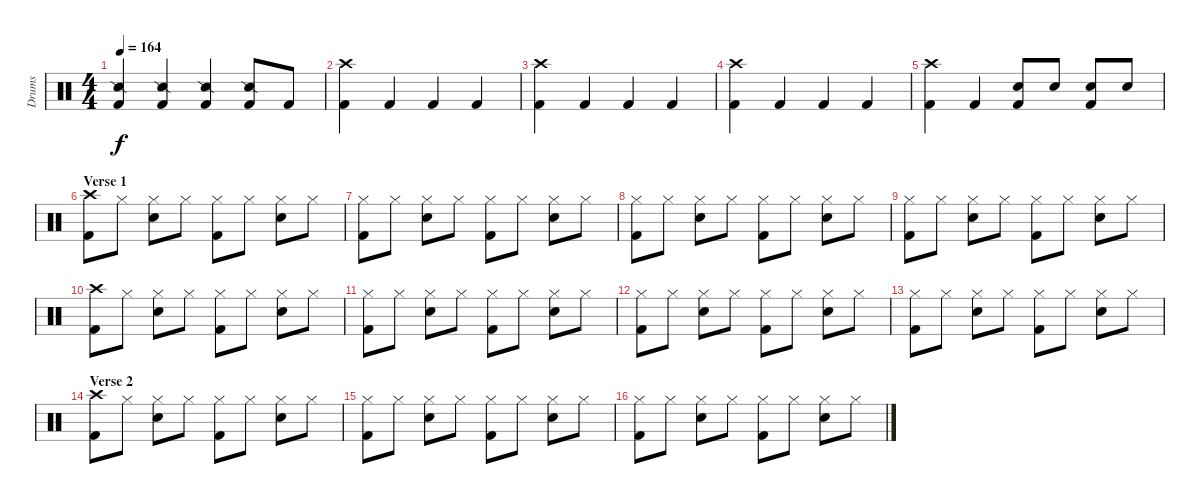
\track ("Drums" "Drums") {instrument percussion}
\staff {score}
\articulation defaults
\ts (4 4)
\tempo 164
\clef neutral
\ks c
("Snare (side stick) 2" "Kick (hit) 2").4{dy f} ("Snare (side stick) 2" "Kick (hit) 2").4 ("Snare (side stick) 2" "Kick (hit) 2").4 ("Snare (side stick) 2" "Kick (hit) 2").8 "Kick (hit) 2".8 |
("Crash high (hit)" "Kick (hit) 2").4 "Kick (hit) 2".4 "Kick (hit) 2".4 "Kick (hit) 2".4 |
("Crash high (hit)" "Kick (hit) 2").4 "Kick (hit) 2".4 "Kick (hit) 2".4 "Kick (hit) 2".4 |
("Crash high (hit)" "Kick (hit) 2").4 "Kick (hit) 2".4 "Kick (hit) 2".4 "Kick (hit) 2".4 |
("Crash high (hit)" "Kick (hit) 2").4 "Kick (hit) 2".4 ("Snare (hit) 2" "Kick (hit) 2").8 "Snare (hit) 2".8 ("Snare (hit) 2" "Kick (hit) 2").8 "Snare (hit) 2".8 |
\section ("" "Verse 1")
("Crash high (hit)" "Kick (hit) 2").8 "Hi-Hat (closed)".8 ("Hi-Hat (closed)" "Snare (hit) 2").8 "Hi-Hat (closed)".8 ("Hi-Hat (closed)" "Kick (hit) 2").8 "Hi-Hat (closed)".8 ("Hi-Hat (closed)" "Snare (hit) 2").8 "Hi-Hat (closed)".8 |
("Hi-Hat (closed)" "Kick (hit) 2").8 "Hi-Hat (closed)".8 ("Hi-Hat (closed)" "Snare (hit) 2").8 "Hi-Hat (closed)".8 ("Hi-Hat (closed)" "Kick (hit) 2").8 "Hi-Hat (closed)".8 ("Hi-Hat (closed)" "Snare (hit) 2").8 "Hi-Hat (closed)".8 |
("Hi-Hat (closed)" "Kick (hit) 2").8 "Hi-Hat (closed)".8 ("Hi-Hat (closed)" "Snare (hit) 2").8 "Hi-Hat (closed)".8 ("Hi-Hat (closed)" "Kick (hit) 2").8 "Hi-Hat (closed)".8 ("Hi-Hat (closed)" "Snare (hit) 2").8 "Hi-Hat (closed)".8 |
("Hi-Hat (closed)" "Kick (hit) 2").8 "Hi-Hat (closed)".8 ("Hi-Hat (closed)" "Snare (hit) 2").8 "Hi-Hat (closed)".8 ("Hi-Hat (closed)" "Kick (hit) 2").8 "Hi-Hat (closed)".8 ("Hi-Hat (closed)" "Snare (hit) 2").8 "Hi-Hat (closed)".8 |
("Crash high (hit)" "Kick (hit) 2").8 "Hi-Hat (closed)".8 ("Hi-Hat (closed)" "Snare (hit) 2").8 "Hi-Hat (closed)".8 ("Hi-Hat (closed)" "Kick (hit) 2").8 "Hi-Hat (closed)".8 ("Hi-Hat (closed)" "Snare (hit) 2").8 "Hi-Hat (closed)".8 |
("Hi-Hat (closed)" "Kick (hit) 2").8 "Hi-Hat (closed)".8 ("Hi-Hat (closed)" "Snare (hit) 2").8 "Hi-Hat (closed)".8 ("Hi-Hat (closed)" "Kick (hit) 2").8 "Hi-Hat (closed)".8 ("Hi-Hat (closed)" "Snare (hit) 2").8 "Hi-Hat (closed)".8 |
("Hi-Hat (closed)" "Kick (hit) 2").8 "Hi-Hat (closed)".8 ("Hi-Hat (closed)" "Snare (hit) 2").8 "Hi-Hat (closed)".8 ("Hi-Hat (closed)" "Kick (hit) 2").8 "Hi-Hat (closed)".8 ("Hi-Hat (closed)" "Snare (hit) 2").8 "Hi-Hat (closed)".8 |
("Hi-Hat (closed)" "Kick (hit) 2").8 "Hi-Hat (closed)".8 ("Hi-Hat (closed)" "Snare (hit) 2").8 "Hi-Hat (closed)".8 ("Hi-Hat (closed)" "Kick (hit) 2").8 "Hi-Hat (closed)".8 ("Hi-Hat (closed)" "Snare (hit) 2").8 "Hi-Hat (closed)".8 |
\section ("" "Verse 2")
("Crash high (hit)" "Kick (hit) 2").8 "Hi-Hat (closed)".8 ("Hi-Hat (closed)" "Snare (hit) 2").8 "Hi-Hat (closed)".8 ("Hi-Hat (closed)" "Kick (hit) 2").8 "Hi-Hat (closed)".8 ("Hi-Hat (closed)" "Snare (hit) 2").8 "Hi-Hat (closed)".8 |
("Hi-Hat (closed)" "Kick (hit) 2").8 "Hi-Hat (closed)".8 ("Hi-Hat (closed)" "Snare (hit) 2").8 "Hi-Hat (closed)".8 ("Hi-Hat (closed)" "Kick (hit) 2").8 "Hi-Hat (closed)".8 ("Hi-Hat (closed)" "Snare (hit) 2").8 "Hi-Hat (closed)".8 |
("Hi-Hat (closed)" "Kick (hit) 2").8 "Hi-Hat (closed)".8 ("Hi-Hat (closed)" "Snare (hit) 2").8 "Hi-Hat (closed)".8 ("Hi-Hat (closed)" "Kick (hit) 2").8 "Hi-Hat (closed)".8 ("Hi-Hat (closed)" "Snare (hit) 2").8 "Hi-Hat (closed)".8
